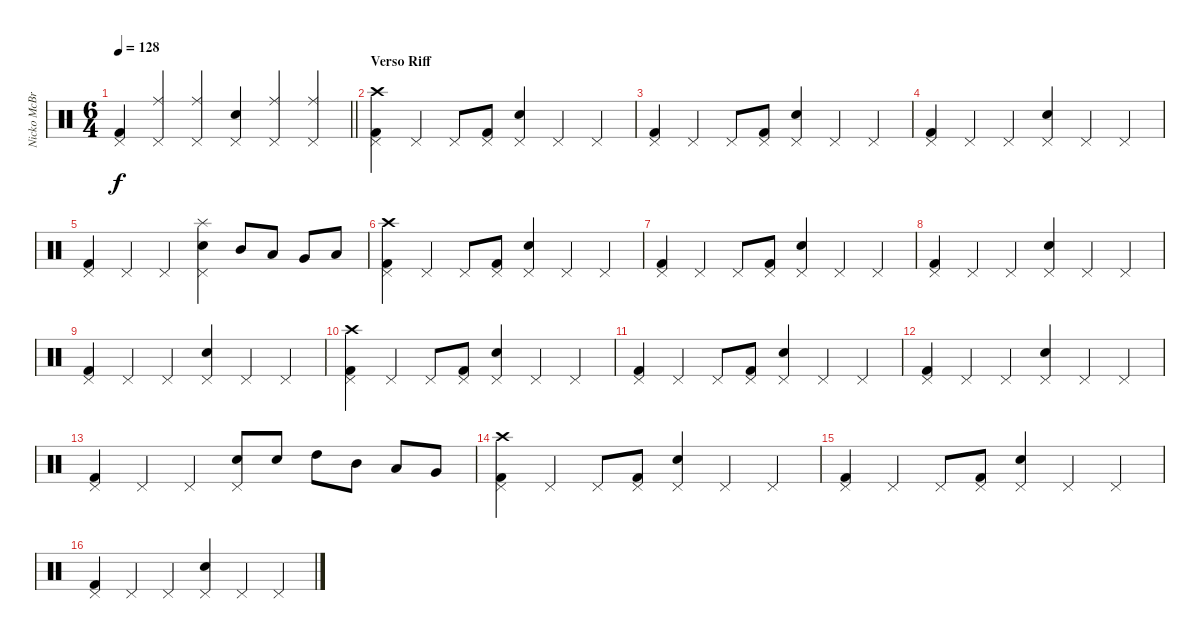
\track ("Nicko McBrain" "Nicko McBr") {instrument percussion}
\staff {score}
\articulation defaults
\ts (6 4)
\tempo 128
\clef neutral
\barLineRight lightlight
\ks c
("Kick (hit) 2" "Pedal Hi-Hat (hit)").4{dy f} ("Pedal Hi-Hat (hit)" "Ride (middle)").4 ("Pedal Hi-Hat (hit)" "Ride (middle)").4 ("Snare (hit) 2" "Pedal Hi-Hat (hit)").4 ("Pedal Hi-Hat (hit)" "Ride (middle)").4 ("Pedal Hi-Hat (hit)" "Ride (middle)").4 |
\section ("" "Verso Riff")
("Kick (hit) 2" "Pedal Hi-Hat (hit)" "Crash high (hit)").4 "Pedal Hi-Hat (hit)".4 "Pedal Hi-Hat (hit)".8 ("Kick (hit) 2" "Pedal Hi-Hat (hit)").8 ("Snare (hit) 2" "Pedal Hi-Hat (hit)").4 "Pedal Hi-Hat (hit)".4 "Pedal Hi-Hat (hit)".4 |
("Kick (hit) 2" "Pedal Hi-Hat (hit)").4 "Pedal Hi-Hat (hit)".4 "Pedal Hi-Hat (hit)".8 ("Kick (hit) 2" "Pedal Hi-Hat (hit)").8 ("Snare (hit) 2" "Pedal Hi-Hat (hit)").4 "Pedal Hi-Hat (hit)".4 "Pedal Hi-Hat (hit)".4 |
("Kick (hit) 2" "Pedal Hi-Hat (hit)").4 "Pedal Hi-Hat (hit)".4 "Pedal Hi-Hat (hit)".4 ("Snare (hit) 2" "Pedal Hi-Hat (hit)").4 "Pedal Hi-Hat (hit)".4 "Pedal Hi-Hat (hit)".4 |
("Kick (hit) 2" "Pedal Hi-Hat (hit)").4 "Pedal Hi-Hat (hit)".4 "Pedal Hi-Hat (hit)".4 ("Snare (hit) 2" "Pedal Hi-Hat (hit)" "Splash (hit)").4 "Mid Tom (hit)".8 "Low Tom (hit)".8 "Very Low Tom (hit)".8 "Low Floor Tom (hit)".8 |
("Kick (hit) 2" "Pedal Hi-Hat (hit)" "Crash high (hit)").4 "Pedal Hi-Hat (hit)".4 "Pedal Hi-Hat (hit)".8 ("Kick (hit) 2" "Pedal Hi-Hat (hit)").8 ("Snare (hit) 2" "Pedal Hi-Hat (hit)").4 "Pedal Hi-Hat (hit)".4 "Pedal Hi-Hat (hit)".4 |
("Kick (hit) 2" "Pedal Hi-Hat (hit)").4 "Pedal Hi-Hat (hit)".4 "Pedal Hi-Hat (hit)".8 ("Kick (hit) 2" "Pedal Hi-Hat (hit)").8 ("Snare (hit) 2" "Pedal Hi-Hat (hit)").4 "Pedal Hi-Hat (hit)".4 "Pedal Hi-Hat (hit)".4 |
("Kick (hit) 2" "Pedal Hi-Hat (hit)").4 "Pedal Hi-Hat (hit)".4 "Pedal Hi-Hat (hit)".4 ("Snare (hit) 2" "Pedal Hi-Hat (hit)").4 "Pedal Hi-Hat (hit)".4 "Pedal Hi-Hat (hit)".4 |
("Kick (hit) 2" "Pedal Hi-Hat (hit)").4 "Pedal Hi-Hat (hit)".4 "Pedal Hi-Hat (hit)".4 ("Snare (hit) 2" "Pedal Hi-Hat (hit)").4 "Pedal Hi-Hat (hit)".4 "Pedal Hi-Hat (hit)".4 |
("Kick (hit) 2" "Pedal Hi-Hat (hit)" "Crash high (hit)").4 "Pedal Hi-Hat (hit)".4 "Pedal Hi-Hat (hit)".8 ("Kick (hit) 2" "Pedal Hi-Hat (hit)").8 ("Snare (hit) 2" "Pedal Hi-Hat (hit)").4 "Pedal Hi-Hat (hit)".4 "Pedal Hi-Hat (hit)".4 |
("Kick (hit) 2" "Pedal Hi-Hat (hit)").4 "Pedal Hi-Hat (hit)".4 "Pedal Hi-Hat (hit)".8 ("Kick (hit) 2" "Pedal Hi-Hat (hit)").8 ("Snare (hit) 2" "Pedal Hi-Hat (hit)").4 "Pedal Hi-Hat (hit)".4 "Pedal Hi-Hat (hit)".4 |
("Kick (hit) 2" "Pedal Hi-Hat (hit)").4 "Pedal Hi-Hat (hit)".4 "Pedal Hi-Hat (hit)".4 ("Snare (hit) 2" "Pedal Hi-Hat (hit)").4 "Pedal Hi-Hat (hit)".4 "Pedal Hi-Hat (hit)".4 |
("Kick (hit) 2" "Pedal Hi-Hat (hit)").4 "Pedal Hi-Hat (hit)".4 "Pedal Hi-Hat (hit)".4 ("Snare (hit) 2" "Pedal Hi-Hat (hit)").8 "Snare (hit) 2".8 "High Tom (hit)".8 "Mid Tom (hit)".8 "Low Tom (hit)".8 "Very Low Tom (hit)".8 |
("Kick (hit) 2" "Pedal Hi-Hat (hit)" "Crash high (hit)").4 "Pedal Hi-Hat (hit)".4 "Pedal Hi-Hat (hit)".8 ("Kick (hit) 2" "Pedal Hi-Hat (hit)").8 ("Snare (hit) 2" "Pedal Hi-Hat (hit)").4 "Pedal Hi-Hat (hit)".4 "Pedal Hi-Hat (hit)".4 |
("Kick (hit) 2" "Pedal Hi-Hat (hit)").4 "Pedal Hi-Hat (hit)".4 "Pedal Hi-Hat (hit)".8 ("Kick (hit) 2" "Pedal Hi-Hat (hit)").8 ("Snare (hit) 2" "Pedal Hi-Hat (hit)").4 "Pedal Hi-Hat (hit)".4 "Pedal Hi-Hat (hit)".4 |
("Kick (hit) 2" "Pedal Hi-Hat (hit)").4 "Pedal Hi-Hat (hit)".4 "Pedal Hi-Hat (hit)".4 ("Snare (hit) 2" "Pedal Hi-Hat (hit)").4 "Pedal Hi-Hat (hit)".4 "Pedal Hi-Hat (hit)".4
